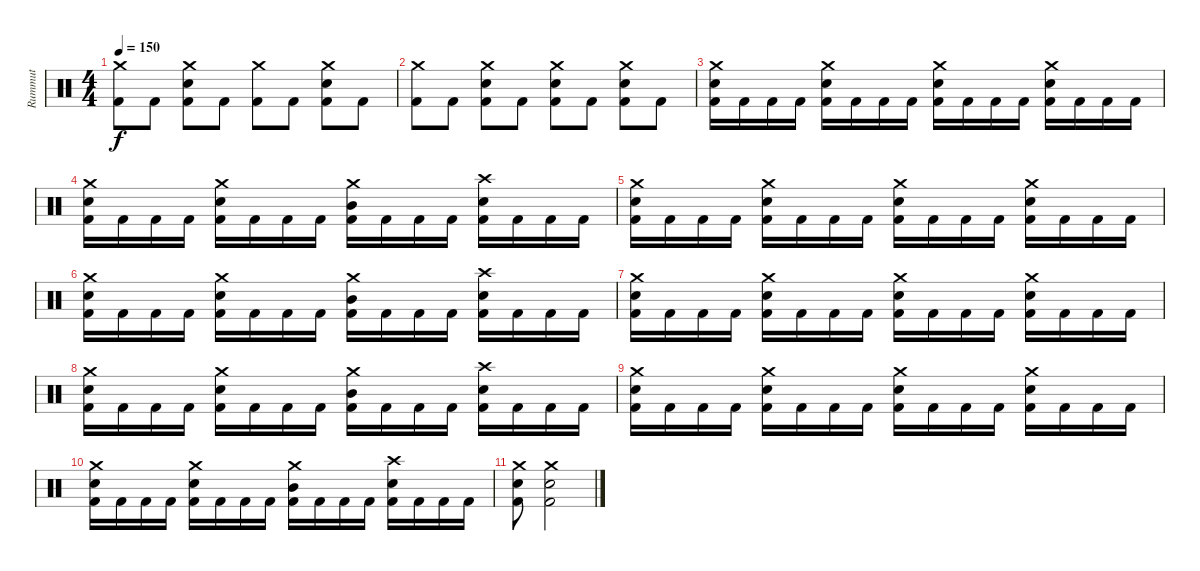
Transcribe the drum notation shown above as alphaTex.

\track ("Rummut" "Rummut") {instrument percussion}
\staff {score}
\articulation defaults
\ts (4 4)
\tempo 150
\clef neutral
\ks c
("Crash medium (hit)" "Kick (hit) 2").8{dy f} "Kick (hit) 2".8 ("Crash medium (hit)" "Snare (hit) 2" "Kick (hit) 2").8 "Kick (hit) 2".8 ("Crash medium (hit)" "Kick (hit) 2").8 "Kick (hit) 2".8 ("Crash medium (hit)" "Snare (hit) 2" "Kick (hit) 2").8 "Kick (hit) 2".8 |
("Crash medium (hit)" "Kick (hit) 2").8 "Kick (hit) 2".8 ("Crash medium (hit)" "Snare (hit) 2" "Kick (hit) 2").8 "Kick (hit) 2".8 ("Crash medium (hit)" "Snare (hit) 2" "Kick (hit) 2").8 "Kick (hit) 2".8 ("Crash medium (hit)" "Snare (hit) 2" "Kick (hit) 2").8 "Kick (hit) 2".8 |
("Crash medium (hit)" "Snare (hit) 2" "Kick (hit) 2").16 "Kick (hit) 2".16 "Kick (hit) 2".16 "Kick (hit) 2".16 ("Crash medium (hit)" "Snare (hit) 2" "Kick (hit) 2").16 "Kick (hit) 2".16 "Kick (hit) 2".16 "Kick (hit) 2".16 ("Crash medium (hit)" "Snare (hit) 2" "Kick (hit) 2").16 "Kick (hit) 2".16 "Kick (hit) 2".16 "Kick (hit) 2".16 ("Crash medium (hit)" "Snare (hit) 2" "Kick (hit) 2").16 "Kick (hit) 2".16 "Kick (hit) 2".16 "Kick (hit) 2".16 |
("Crash medium (hit)" "Snare (hit) 2" "Kick (hit) 2").16 "Kick (hit) 2".16 "Kick (hit) 2".16 "Kick (hit) 2".16 ("Crash medium (hit)" "Snare (hit) 2" "Kick (hit) 2").16 "Kick (hit) 2".16 "Kick (hit) 2".16 "Kick (hit) 2".16 ("Crash medium (hit)" "Mid Tom (hit)" "Kick (hit) 2").16 "Kick (hit) 2".16 "Kick (hit) 2".16 "Kick (hit) 2".16 ("Crash high (hit)" "Snare (hit) 2" "Kick (hit) 2").16 "Kick (hit) 2".16 "Kick (hit) 2".16 "Kick (hit) 2".16 |
("Crash medium (hit)" "Snare (hit) 2" "Kick (hit) 2").16 "Kick (hit) 2".16 "Kick (hit) 2".16 "Kick (hit) 2".16 ("Crash medium (hit)" "Snare (hit) 2" "Kick (hit) 2").16 "Kick (hit) 2".16 "Kick (hit) 2".16 "Kick (hit) 2".16 ("Crash medium (hit)" "Snare (hit) 2" "Kick (hit) 2").16 "Kick (hit) 2".16 "Kick (hit) 2".16 "Kick (hit) 2".16 ("Crash medium (hit)" "Snare (hit) 2" "Kick (hit) 2").16 "Kick (hit) 2".16 "Kick (hit) 2".16 "Kick (hit) 2".16 |
("Crash medium (hit)" "Snare (hit) 2" "Kick (hit) 2").16 "Kick (hit) 2".16 "Kick (hit) 2".16 "Kick (hit) 2".16 ("Crash medium (hit)" "Snare (hit) 2" "Kick (hit) 2").16 "Kick (hit) 2".16 "Kick (hit) 2".16 "Kick (hit) 2".16 ("Crash medium (hit)" "Mid Tom (hit)" "Kick (hit) 2").16 "Kick (hit) 2".16 "Kick (hit) 2".16 "Kick (hit) 2".16 ("Crash high (hit)" "Snare (hit) 2" "Kick (hit) 2").16 "Kick (hit) 2".16 "Kick (hit) 2".16 "Kick (hit) 2".16 |
("Crash medium (hit)" "Snare (hit) 2" "Kick (hit) 2").16 "Kick (hit) 2".16 "Kick (hit) 2".16 "Kick (hit) 2".16 ("Crash medium (hit)" "Snare (hit) 2" "Kick (hit) 2").16 "Kick (hit) 2".16 "Kick (hit) 2".16 "Kick (hit) 2".16 ("Crash medium (hit)" "Snare (hit) 2" "Kick (hit) 2").16 "Kick (hit) 2".16 "Kick (hit) 2".16 "Kick (hit) 2".16 ("Crash medium (hit)" "Snare (hit) 2" "Kick (hit) 2").16 "Kick (hit) 2".16 "Kick (hit) 2".16 "Kick (hit) 2".16 |
("Crash medium (hit)" "Snare (hit) 2" "Kick (hit) 2").16 "Kick (hit) 2".16 "Kick (hit) 2".16 "Kick (hit) 2".16 ("Crash medium (hit)" "Snare (hit) 2" "Kick (hit) 2").16 "Kick (hit) 2".16 "Kick (hit) 2".16 "Kick (hit) 2".16 ("Crash medium (hit)" "Mid Tom (hit)" "Kick (hit) 2").16 "Kick (hit) 2".16 "Kick (hit) 2".16 "Kick (hit) 2".16 ("Crash high (hit)" "Snare (hit) 2" "Kick (hit) 2").16 "Kick (hit) 2".16 "Kick (hit) 2".16 "Kick (hit) 2".16 |
("Crash medium (hit)" "Snare (hit) 2" "Kick (hit) 2").16 "Kick (hit) 2".16 "Kick (hit) 2".16 "Kick (hit) 2".16 ("Crash medium (hit)" "Snare (hit) 2" "Kick (hit) 2").16 "Kick (hit) 2".16 "Kick (hit) 2".16 "Kick (hit) 2".16 ("Crash medium (hit)" "Snare (hit) 2" "Kick (hit) 2").16 "Kick (hit) 2".16 "Kick (hit) 2".16 "Kick (hit) 2".16 ("Crash medium (hit)" "Snare (hit) 2" "Kick (hit) 2").16 "Kick (hit) 2".16 "Kick (hit) 2".16 "Kick (hit) 2".16 |
("Crash medium (hit)" "Snare (hit) 2" "Kick (hit) 2").16 "Kick (hit) 2".16 "Kick (hit) 2".16 "Kick (hit) 2".16 ("Crash medium (hit)" "Snare (hit) 2" "Kick (hit) 2").16 "Kick (hit) 2".16 "Kick (hit) 2".16 "Kick (hit) 2".16 ("Crash medium (hit)" "Mid Tom (hit)" "Kick (hit) 2").16 "Kick (hit) 2".16 "Kick (hit) 2".16 "Kick (hit) 2".16 ("Crash high (hit)" "Snare (hit) 2" "Kick (hit) 2").16 "Kick (hit) 2".16 "Kick (hit) 2".16 "Kick (hit) 2".16 |
("Crash medium (hit)" "Snare (hit) 2" "Kick (hit) 2").8 ("Crash medium (hit)" "Snare (hit) 2" "Kick (hit) 2").2
